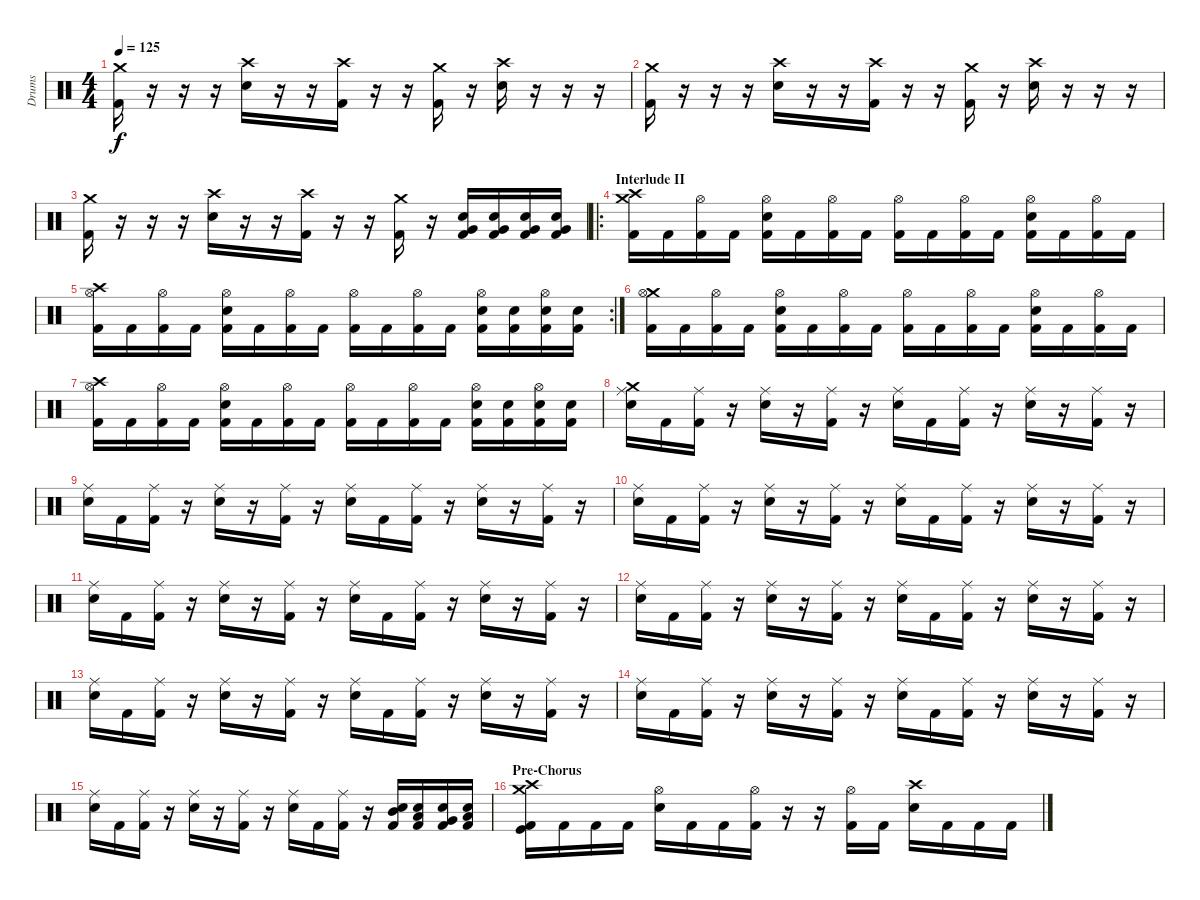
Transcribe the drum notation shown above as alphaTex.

\track ("Drums" "Drums") {instrument percussion}
\staff {score}
\articulation defaults
\ts (4 4)
\tempo 125
\clef neutral
\ks c
("Crash medium (hit)" "Kick (hit) 2").16{dy f} r.16 r.16 r.16 ("Crash high (hit)" "Electric Snare (hit)").16 r.16 r.16 ("Crash high (hit)" "Kick (hit) 2").16 r.16 r.16 ("Crash medium (hit)" "Kick (hit) 2").16 r.16 ("Crash high (hit)" "Electric Snare (hit)").16 r.16 r.16 r.16 |
("Crash medium (hit)" "Kick (hit) 2").16 r.16 r.16 r.16 ("Crash high (hit)" "Electric Snare (hit)").16 r.16 r.16 ("Crash high (hit)" "Kick (hit) 2").16 r.16 r.16 ("Crash medium (hit)" "Kick (hit) 2").16 r.16 ("Crash high (hit)" "Electric Snare (hit)").16 r.16 r.16 r.16 |
("Crash medium (hit)" "Kick (hit) 2").16 r.16 r.16 r.16 ("Crash high (hit)" "Electric Snare (hit)").16 r.16 r.16 ("Crash high (hit)" "Kick (hit) 2").16 r.16 r.16 ("Crash medium (hit)" "Kick (hit) 2").16 r.16 ("Very Low Tom (hit)" "Electric Snare (hit)" "Kick (hit) 2").16 ("Very Low Tom (hit)" "Electric Snare (hit)" "Kick (hit) 2").16 ("Very Low Tom (hit)" "Electric Snare (hit)" "Kick (hit) 2").16 ("Very Low Tom (hit)" "Electric Snare (hit)" "Kick (hit) 2").16 |
\ro
\section ("" "Interlude II")
("Crash medium (hit)" "Crash high (hit)" "Kick (hit) 2").16 "Kick (hit) 2".16 ("Hi-Hat (open)" "Kick (hit) 2").16 "Kick (hit) 2".16 ("Hi-Hat (open)" "Electric Snare (hit)" "Kick (hit) 2").16 "Kick (hit) 2".16 ("Hi-Hat (open)" "Kick (hit) 2").16 "Kick (hit) 2".16 ("Hi-Hat (open)" "Kick (hit) 2").16 "Kick (hit) 2".16 ("Hi-Hat (open)" "Kick (hit) 2").16 "Kick (hit) 2".16 ("Hi-Hat (open)" "Electric Snare (hit)" "Kick (hit) 2").16 "Kick (hit) 2".16 ("Hi-Hat (open)" "Kick (hit) 2").16 "Kick (hit) 2".16 |
\rc 2
("Crash high (hit)" "Hi-Hat (open)" "Kick (hit) 2").16 "Kick (hit) 2".16 ("Hi-Hat (open)" "Kick (hit) 2").16 "Kick (hit) 2".16 ("Hi-Hat (open)" "Electric Snare (hit)" "Kick (hit) 2").16 "Kick (hit) 2".16 ("Hi-Hat (open)" "Kick (hit) 2").16 "Kick (hit) 2".16 ("Hi-Hat (open)" "Kick (hit) 2").16 "Kick (hit) 2".16 ("Hi-Hat (open)" "Kick (hit) 2").16 "Kick (hit) 2".16 ("Hi-Hat (open)" "Electric Snare (hit)" "Kick (hit) 2").16 ("Electric Snare (hit)" "Kick (hit) 2").16 ("Hi-Hat (open)" "Electric Snare (hit)" "Kick (hit) 2").16 ("Electric Snare (hit)" "Kick (hit) 2").16 |
("Crash medium (hit)" "Hi-Hat (open)" "Kick (hit) 2").16 "Kick (hit) 2".16 ("Hi-Hat (open)" "Kick (hit) 2").16 "Kick (hit) 2".16 ("Hi-Hat (open)" "Electric Snare (hit)" "Kick (hit) 2").16 "Kick (hit) 2".16 ("Hi-Hat (open)" "Kick (hit) 2").16 "Kick (hit) 2".16 ("Hi-Hat (open)" "Kick (hit) 2").16 "Kick (hit) 2".16 ("Hi-Hat (open)" "Kick (hit) 2").16 "Kick (hit) 2".16 ("Hi-Hat (open)" "Electric Snare (hit)" "Kick (hit) 2").16 "Kick (hit) 2".16 ("Hi-Hat (open)" "Kick (hit) 2").16 "Kick (hit) 2".16 |
("Crash high (hit)" "Hi-Hat (open)" "Kick (hit) 2").16 "Kick (hit) 2".16 ("Hi-Hat (open)" "Kick (hit) 2").16 "Kick (hit) 2".16 ("Hi-Hat (open)" "Electric Snare (hit)" "Kick (hit) 2").16 "Kick (hit) 2".16 ("Hi-Hat (open)" "Kick (hit) 2").16 "Kick (hit) 2".16 ("Hi-Hat (open)" "Kick (hit) 2").16 "Kick (hit) 2".16 ("Hi-Hat (open)" "Kick (hit) 2").16 "Kick (hit) 2".16 ("Hi-Hat (open)" "Electric Snare (hit)" "Kick (hit) 2").16 ("Electric Snare (hit)" "Kick (hit) 2").16 ("Hi-Hat (open)" "Electric Snare (hit)" "Kick (hit) 2").16 ("Electric Snare (hit)" "Kick (hit) 2").16 |
("Crash medium (hit)" "Ride (middle)" "Electric Snare (hit)").16 "Kick (hit) 2".16 ("Ride (middle)" "Kick (hit) 2").16 r.16 ("Ride (middle)" "Electric Snare (hit)").16 r.16 ("Ride (middle)" "Kick (hit) 2").16 r.16 ("Ride (middle)" "Electric Snare (hit)").16 "Kick (hit) 2".16 ("Ride (middle)" "Kick (hit) 2").16 r.16 ("Ride (middle)" "Electric Snare (hit)").16 r.16 ("Ride (middle)" "Kick (hit) 2").16 r.16 |
("Ride (middle)" "Electric Snare (hit)").16 "Kick (hit) 2".16 ("Ride (middle)" "Kick (hit) 2").16 r.16 ("Ride (middle)" "Electric Snare (hit)").16 r.16 ("Ride (middle)" "Kick (hit) 2").16 r.16 ("Ride (middle)" "Electric Snare (hit)").16 "Kick (hit) 2".16 ("Ride (middle)" "Kick (hit) 2").16 r.16 ("Ride (middle)" "Electric Snare (hit)").16 r.16 ("Ride (middle)" "Kick (hit) 2").16 r.16 |
("Ride (middle)" "Electric Snare (hit)").16 "Kick (hit) 2".16 ("Ride (middle)" "Kick (hit) 2").16 r.16 ("Ride (middle)" "Electric Snare (hit)").16 r.16 ("Ride (middle)" "Kick (hit) 2").16 r.16 ("Ride (middle)" "Electric Snare (hit)").16 "Kick (hit) 2".16 ("Ride (middle)" "Kick (hit) 2").16 r.16 ("Ride (middle)" "Electric Snare (hit)").16 r.16 ("Ride (middle)" "Kick (hit) 2").16 r.16 |
("Ride (middle)" "Electric Snare (hit)").16 "Kick (hit) 2".16 ("Ride (middle)" "Kick (hit) 2").16 r.16 ("Ride (middle)" "Electric Snare (hit)").16 r.16 ("Ride (middle)" "Kick (hit) 2").16 r.16 ("Ride (middle)" "Electric Snare (hit)").16 "Kick (hit) 2".16 ("Ride (middle)" "Kick (hit) 2").16 r.16 ("Ride (middle)" "Electric Snare (hit)").16 r.16 ("Ride (middle)" "Kick (hit) 2").16 r.16 |
("Ride (middle)" "Electric Snare (hit)").16 "Kick (hit) 2".16 ("Ride (middle)" "Kick (hit) 2").16 r.16 ("Ride (middle)" "Electric Snare (hit)").16 r.16 ("Ride (middle)" "Kick (hit) 2").16 r.16 ("Ride (middle)" "Electric Snare (hit)").16 "Kick (hit) 2".16 ("Ride (middle)" "Kick (hit) 2").16 r.16 ("Ride (middle)" "Electric Snare (hit)").16 r.16 ("Ride (middle)" "Kick (hit) 2").16 r.16 |
("Ride (middle)" "Electric Snare (hit)").16 "Kick (hit) 2".16 ("Ride (middle)" "Kick (hit) 2").16 r.16 ("Ride (middle)" "Electric Snare (hit)").16 r.16 ("Ride (middle)" "Kick (hit) 2").16 r.16 ("Ride (middle)" "Electric Snare (hit)").16 "Kick (hit) 2".16 ("Ride (middle)" "Kick (hit) 2").16 r.16 ("Ride (middle)" "Electric Snare (hit)").16 r.16 ("Ride (middle)" "Kick (hit) 2").16 r.16 |
("Ride (middle)" "Electric Snare (hit)").16 "Kick (hit) 2".16 ("Ride (middle)" "Kick (hit) 2").16 r.16 ("Ride (middle)" "Electric Snare (hit)").16 r.16 ("Ride (middle)" "Kick (hit) 2").16 r.16 ("Ride (middle)" "Electric Snare (hit)").16 "Kick (hit) 2".16 ("Ride (middle)" "Kick (hit) 2").16 r.16 ("Ride (middle)" "Electric Snare (hit)").16 r.16 ("Ride (middle)" "Kick (hit) 2").16 r.16 |
("Ride (middle)" "Electric Snare (hit)").16 "Kick (hit) 2".16 ("Ride (middle)" "Kick (hit) 2").16 r.16 ("Ride (middle)" "Electric Snare (hit)").16 r.16 ("Ride (middle)" "Kick (hit) 2").16 r.16 ("Ride (middle)" "Electric Snare (hit)").16 "Kick (hit) 2".16 ("Ride (middle)" "Kick (hit) 2").16 r.16 ("Mid Tom (hit)" "Kick (hit) 2" "Electric Snare (hit)").16 ("Low Tom (hit)" "Kick (hit) 2" "Electric Snare (hit)").16 ("Very Low Tom (hit)" "Kick (hit) 2" "Electric Snare (hit)").16 ("Low Floor Tom (hit)" "Kick (hit) 2" "Electric Snare (hit)").16 |
\section ("" "Pre-Chorus")
("Crash high (hit)" "Crash medium (hit)" "Kick (hit)" "Kick (hit) 2").16 "Kick (hit) 2".16 "Kick (hit) 2".16 "Kick (hit) 2".16 ("Hi-Hat (open)" "Electric Snare (hit)").16 "Kick (hit) 2".16 "Kick (hit) 2".16 ("Hi-Hat (open)" "Kick (hit) 2").16 r.16 r.16 ("Hi-Hat (open)" "Kick (hit) 2").16 "Kick (hit) 2".16 ("Crash high (hit)" "Electric Snare (hit)").16 "Kick (hit) 2".16 "Kick (hit) 2".16 "Kick (hit) 2".16
